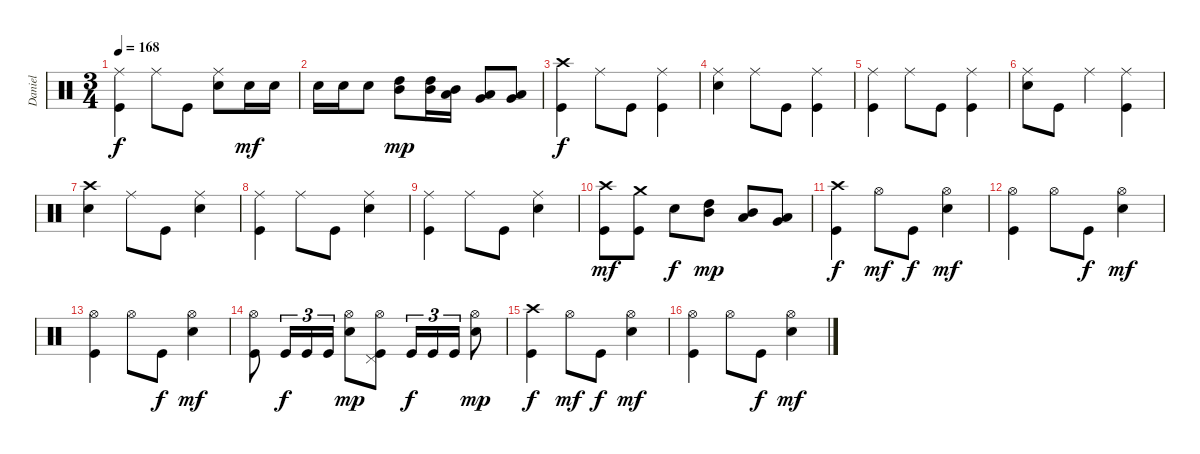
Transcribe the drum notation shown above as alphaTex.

\track ("Daniel" "Daniel") {instrument percussion}
\staff {score}
\articulation defaults
\ts (3 4)
\tempo 168
\clef neutral
\ks c
("Kick (hit)" "Ride (middle)").4{dy f} "Ride (middle)".8 "Kick (hit)".8 ("Electric Snare (hit)" "Ride (middle)").8 "Electric Snare (hit)".16{dy mf} "Electric Snare (hit)".16 |
"Electric Snare (hit)".16 "Electric Snare (hit)".16 "Electric Snare (hit)".8 ("Mid Tom (hit)" "High Tom (hit)").8{dy mp} ("Mid Tom (hit)" "High Tom (hit)").16 ("Low Tom (hit)" "Mid Tom (hit)").16 ("Very Low Tom (hit)" "Low Tom (hit)").8 ("Low Floor Tom (hit)" "Very Low Tom (hit)").8 |
("Kick (hit)" "Crash high (hit)").4{dy f} "Ride (middle)".8 "Kick (hit)".8 ("Kick (hit)" "Ride (middle)").4 |
("Electric Snare (hit)" "Ride (middle)").4 "Ride (middle)".8 "Kick (hit)".8 ("Kick (hit)" "Ride (middle)").4 |
("Kick (hit)" "Ride (middle)").4 "Ride (middle)".8 "Kick (hit)".8 ("Kick (hit)" "Ride (middle)").4 |
("Electric Snare (hit)" "Ride (middle)").8 "Kick (hit)".8 "Ride (middle)".4 ("Kick (hit)" "Ride (middle)").4 |
("Electric Snare (hit)" "Crash high (hit)").4 "Ride (middle)".8 "Kick (hit)".8 ("Electric Snare (hit)" "Ride (middle)").4 |
("Kick (hit)" "Ride (middle)").4 "Ride (middle)".8 "Kick (hit)".8 ("Electric Snare (hit)" "Ride (middle)").4 |
("Kick (hit)" "Ride (middle)").4 "Ride (middle)".8 "Kick (hit)".8 ("Electric Snare (hit)" "Ride (middle)").4 |
("Kick (hit)" "Crash high (hit)").8{dy mf} ("Kick (hit)" "Crash medium (hit)").8 "Electric Snare (hit)".8{dy f} ("Mid Tom (hit)" "High Tom (hit)").8{dy mp} ("Low Tom (hit)" "Mid Tom (hit)").8 ("Very Low Tom (hit)" "Low Tom (hit)").8 |
("Kick (hit)" "Crash high (hit)").4{dy f} "Hi-Hat (open)".8{dy mf} "Kick (hit)".8{dy f} ("Electric Snare (hit)" "Hi-Hat (open)").4{dy mf} |
("Kick (hit)" "Hi-Hat (open)").4 "Hi-Hat (open)".8 "Kick (hit)".8{dy f} ("Electric Snare (hit)" "Hi-Hat (open)").4{dy mf} |
("Kick (hit)" "Hi-Hat (open)").4 "Hi-Hat (open)".8 "Kick (hit)".8{dy f} ("Electric Snare (hit)" "Hi-Hat (open)").4{dy mf} |
("Kick (hit)" "Hi-Hat (open)").8 "Kick (hit)".16{tu (3 2) dy f} "Kick (hit)".16{tu (3 2)} "Kick (hit)".16{tu (3 2)} ("Electric Snare (hit)" "Hi-Hat (open)").8{dy mp} ("Kick (hit)" "Pedal Hi-Hat (hit)" "Hi-Hat (open)").8 "Kick (hit)".16{tu (3 2) dy f} "Kick (hit)".16{tu (3 2)} "Kick (hit)".16{tu (3 2)} ("Electric Snare (hit)" "Hi-Hat (open)").8{dy mp} |
("Kick (hit)" "Crash high (hit)").4{dy f} "Hi-Hat (open)".8{dy mf} "Kick (hit)".8{dy f} ("Electric Snare (hit)" "Hi-Hat (open)").4{dy mf} |
("Kick (hit)" "Hi-Hat (open)").4 "Hi-Hat (open)".8 "Kick (hit)".8{dy f} ("Electric Snare (hit)" "Hi-Hat (open)").4{dy mf}
